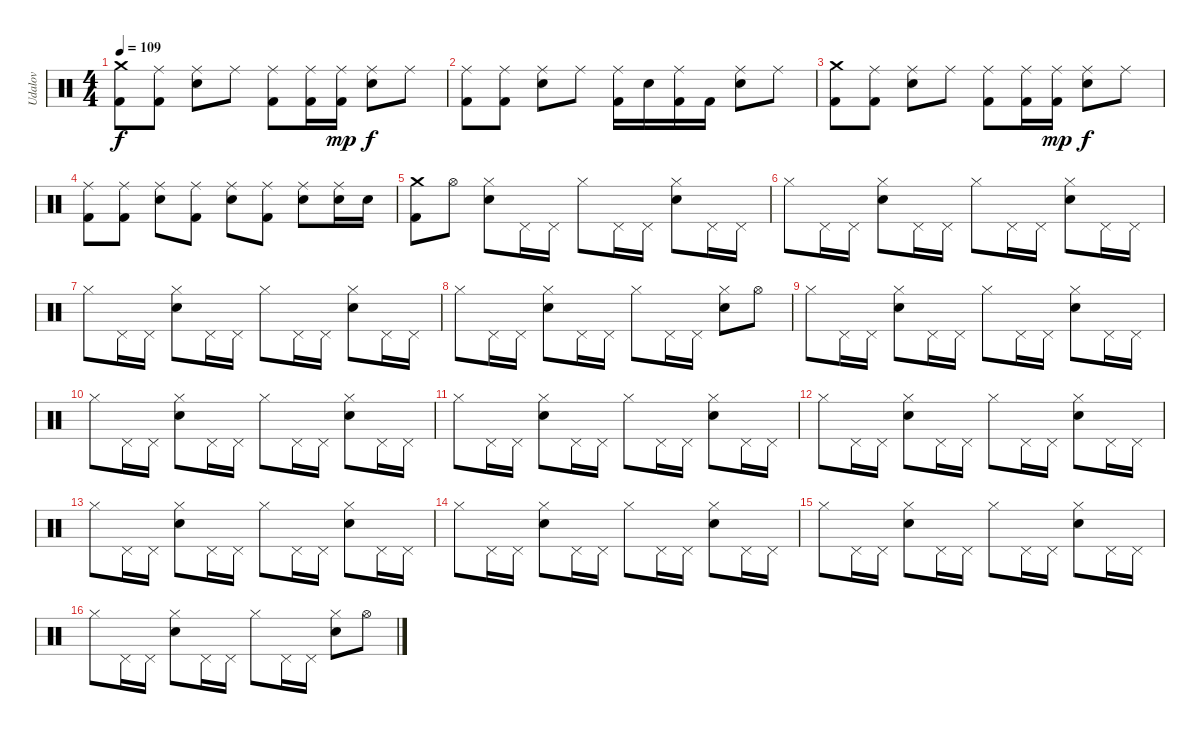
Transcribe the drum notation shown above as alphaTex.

\track ("Udalov" "Udalov") {instrument percussion}
\staff {score}
\articulation defaults
\ts (4 4)
\tempo 109
\clef neutral
\ks c
("Kick (hit) 2" "Crash medium (hit)").8{dy f} ("Kick (hit) 2" "Ride (middle)").8 ("Snare (hit) 2" "Ride (middle)").8 "Ride (middle)".8 ("Kick (hit) 2" "Ride (middle)").8 ("Kick (hit) 2" "Ride (middle)").16 ("Ride (middle)" "Kick (hit) 2").16{dy mp} ("Snare (hit) 2" "Ride (middle)").8{dy f} "Ride (middle)".8 |
("Kick (hit) 2" "Ride (middle)").8 ("Kick (hit) 2" "Ride (middle)").8 ("Snare (hit) 2" "Ride (middle)").8 "Ride (middle)".8 ("Kick (hit) 2" "Ride (middle)").16 "Snare (hit) 2".16 ("Ride (middle)" "Kick (hit) 2").16 "Kick (hit) 2".16 ("Snare (hit) 2" "Ride (middle)").8 "Ride (middle)".8 |
("Kick (hit) 2" "Crash medium (hit)").8 ("Ride (middle)" "Kick (hit) 2").8 ("Ride (middle)" "Snare (hit) 2").8 "Ride (middle)".8 ("Ride (middle)" "Kick (hit) 2").8 ("Ride (middle)" "Kick (hit) 2").16 ("Ride (middle)" "Kick (hit) 2").16{dy mp} ("Ride (middle)" "Snare (hit) 2").8{dy f} "Ride (middle)".8 |
("Ride (middle)" "Kick (hit) 2").8 ("Ride (middle)" "Kick (hit) 2").8 ("Ride (middle)" "Snare (hit) 2").8 ("Kick (hit) 2" "Ride (middle)").8 ("Snare (hit) 2" "Ride (middle)").8 ("Kick (hit) 2" "Ride (middle)").8 ("Snare (hit) 2" "Ride (middle)").8 ("Snare (hit) 2" "Ride (middle)").16 "Snare (hit) 2".16 |
("Kick (hit) 2" "Crash medium (hit)").8 "Hi-Hat (open)".8 ("Snare (hit) 2" "Hi-Hat (closed)").8 "Pedal Hi-Hat (hit)".16 "Pedal Hi-Hat (hit)".16 "Hi-Hat (closed)".8 "Pedal Hi-Hat (hit)".16 "Pedal Hi-Hat (hit)".16 ("Snare (hit) 2" "Hi-Hat (closed)").8 "Pedal Hi-Hat (hit)".16 "Pedal Hi-Hat (hit)".16 |
"Hi-Hat (closed)".8 "Pedal Hi-Hat (hit)".16 "Pedal Hi-Hat (hit)".16 ("Snare (hit) 2" "Hi-Hat (closed)").8 "Pedal Hi-Hat (hit)".16 "Pedal Hi-Hat (hit)".16 "Hi-Hat (closed)".8 "Pedal Hi-Hat (hit)".16 "Pedal Hi-Hat (hit)".16 ("Snare (hit) 2" "Hi-Hat (closed)").8 "Pedal Hi-Hat (hit)".16 "Pedal Hi-Hat (hit)".16 |
"Hi-Hat (closed)".8 "Pedal Hi-Hat (hit)".16 "Pedal Hi-Hat (hit)".16 ("Snare (hit) 2" "Hi-Hat (closed)").8 "Pedal Hi-Hat (hit)".16 "Pedal Hi-Hat (hit)".16 "Hi-Hat (closed)".8 "Pedal Hi-Hat (hit)".16 "Pedal Hi-Hat (hit)".16 ("Snare (hit) 2" "Hi-Hat (closed)").8 "Pedal Hi-Hat (hit)".16 "Pedal Hi-Hat (hit)".16 |
"Hi-Hat (closed)".8 "Pedal Hi-Hat (hit)".16 "Pedal Hi-Hat (hit)".16 ("Snare (hit) 2" "Hi-Hat (closed)").8 "Pedal Hi-Hat (hit)".16 "Pedal Hi-Hat (hit)".16 "Hi-Hat (closed)".8 "Pedal Hi-Hat (hit)".16 "Pedal Hi-Hat (hit)".16 ("Snare (hit) 2" "Hi-Hat (closed)").8 "Hi-Hat (open)".8 |
"Hi-Hat (closed)".8 "Pedal Hi-Hat (hit)".16 "Pedal Hi-Hat (hit)".16 ("Snare (hit) 2" "Hi-Hat (closed)").8 "Pedal Hi-Hat (hit)".16 "Pedal Hi-Hat (hit)".16 "Hi-Hat (closed)".8 "Pedal Hi-Hat (hit)".16 "Pedal Hi-Hat (hit)".16 ("Snare (hit) 2" "Hi-Hat (closed)").8 "Pedal Hi-Hat (hit)".16 "Pedal Hi-Hat (hit)".16 |
"Hi-Hat (closed)".8 "Pedal Hi-Hat (hit)".16 "Pedal Hi-Hat (hit)".16 ("Snare (hit) 2" "Hi-Hat (closed)").8 "Pedal Hi-Hat (hit)".16 "Pedal Hi-Hat (hit)".16 "Hi-Hat (closed)".8 "Pedal Hi-Hat (hit)".16 "Pedal Hi-Hat (hit)".16 ("Snare (hit) 2" "Hi-Hat (closed)").8 "Pedal Hi-Hat (hit)".16 "Pedal Hi-Hat (hit)".16 |
"Hi-Hat (closed)".8 "Pedal Hi-Hat (hit)".16 "Pedal Hi-Hat (hit)".16 ("Snare (hit) 2" "Hi-Hat (closed)").8 "Pedal Hi-Hat (hit)".16 "Pedal Hi-Hat (hit)".16 "Hi-Hat (closed)".8 "Pedal Hi-Hat (hit)".16 "Pedal Hi-Hat (hit)".16 ("Snare (hit) 2" "Hi-Hat (closed)").8 "Pedal Hi-Hat (hit)".16 "Pedal Hi-Hat (hit)".16 |
"Hi-Hat (closed)".8 "Pedal Hi-Hat (hit)".16 "Pedal Hi-Hat (hit)".16 ("Snare (hit) 2" "Hi-Hat (closed)").8 "Pedal Hi-Hat (hit)".16 "Pedal Hi-Hat (hit)".16 "Hi-Hat (closed)".8 "Pedal Hi-Hat (hit)".16 "Pedal Hi-Hat (hit)".16 ("Snare (hit) 2" "Hi-Hat (closed)").8 "Pedal Hi-Hat (hit)".16 "Pedal Hi-Hat (hit)".16 |
"Hi-Hat (closed)".8 "Pedal Hi-Hat (hit)".16 "Pedal Hi-Hat (hit)".16 ("Snare (hit) 2" "Hi-Hat (closed)").8 "Pedal Hi-Hat (hit)".16 "Pedal Hi-Hat (hit)".16 "Hi-Hat (closed)".8 "Pedal Hi-Hat (hit)".16 "Pedal Hi-Hat (hit)".16 ("Snare (hit) 2" "Hi-Hat (closed)").8 "Pedal Hi-Hat (hit)".16 "Pedal Hi-Hat (hit)".16 |
"Hi-Hat (closed)".8 "Pedal Hi-Hat (hit)".16 "Pedal Hi-Hat (hit)".16 ("Snare (hit) 2" "Hi-Hat (closed)").8 "Pedal Hi-Hat (hit)".16 "Pedal Hi-Hat (hit)".16 "Hi-Hat (closed)".8 "Pedal Hi-Hat (hit)".16 "Pedal Hi-Hat (hit)".16 ("Snare (hit) 2" "Hi-Hat (closed)").8 "Pedal Hi-Hat (hit)".16 "Pedal Hi-Hat (hit)".16 |
"Hi-Hat (closed)".8 "Pedal Hi-Hat (hit)".16 "Pedal Hi-Hat (hit)".16 ("Snare (hit) 2" "Hi-Hat (closed)").8 "Pedal Hi-Hat (hit)".16 "Pedal Hi-Hat (hit)".16 "Hi-Hat (closed)".8 "Pedal Hi-Hat (hit)".16 "Pedal Hi-Hat (hit)".16 ("Snare (hit) 2" "Hi-Hat (closed)").8 "Pedal Hi-Hat (hit)".16 "Pedal Hi-Hat (hit)".16 |
"Hi-Hat (closed)".8 "Pedal Hi-Hat (hit)".16 "Pedal Hi-Hat (hit)".16 ("Snare (hit) 2" "Hi-Hat (closed)").8 "Pedal Hi-Hat (hit)".16 "Pedal Hi-Hat (hit)".16 "Hi-Hat (closed)".8 "Pedal Hi-Hat (hit)".16 "Pedal Hi-Hat (hit)".16 ("Snare (hit) 2" "Hi-Hat (closed)").8 "Hi-Hat (open)".8
